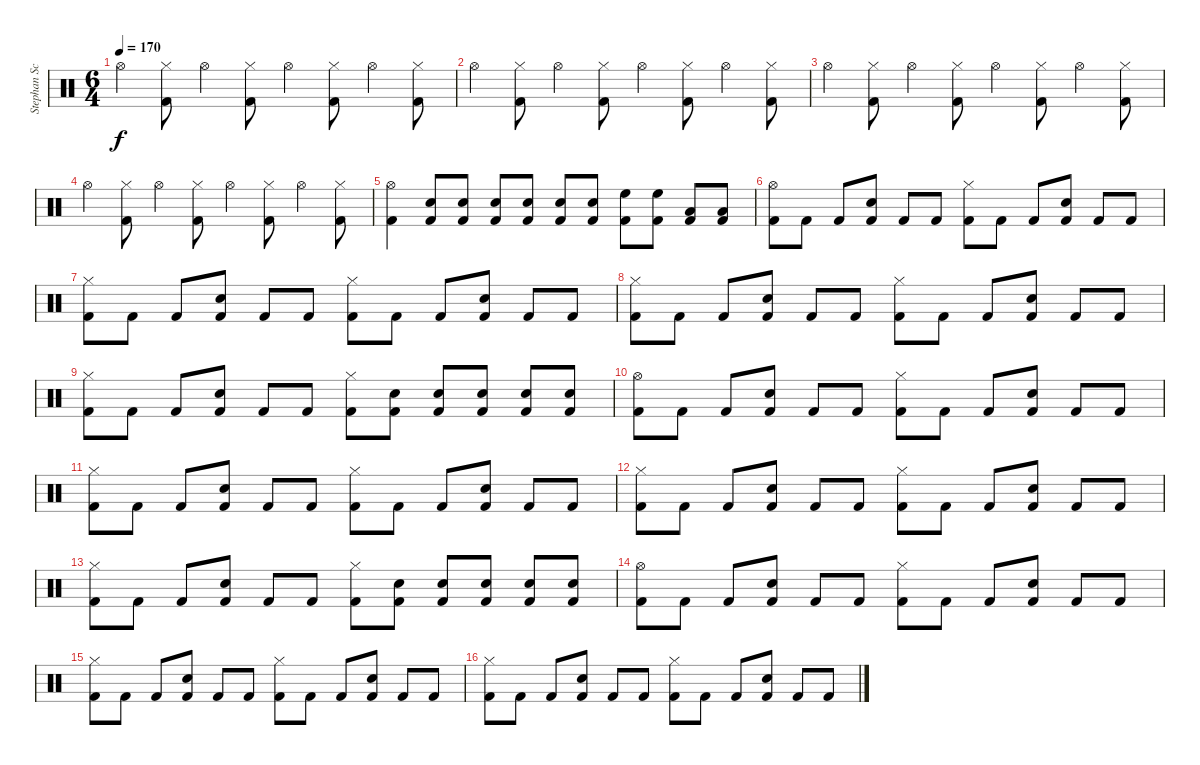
\track ("Stephan Schwartzmann" "Stephan Sc") {instrument percussion}
\staff {score}
\articulation defaults
\ts (6 4)
\tempo 170
\clef neutral
\ks c "Hi-Hat (open)".4{dy f}
("Hi-Hat (closed)" "Kick (hit) 2").8 "Hi-Hat (open)".4 ("Hi-Hat (closed)" "Kick (hit) 2").8 "Hi-Hat (open)".4 ("Hi-Hat (closed)" "Kick (hit) 2").8 "Hi-Hat (open)".4 ("Hi-Hat (closed)" "Kick (hit) 2").8 |
"Hi-Hat (open)".4 ("Hi-Hat (closed)" "Kick (hit) 2").8 "Hi-Hat (open)".4 ("Hi-Hat (closed)" "Kick (hit) 2").8 "Hi-Hat (open)".4 ("Hi-Hat (closed)" "Kick (hit) 2").8 "Hi-Hat (open)".4 ("Hi-Hat (closed)" "Kick (hit) 2").8 |
"Hi-Hat (open)".4 ("Hi-Hat (closed)" "Kick (hit) 2").8 "Hi-Hat (open)".4 ("Hi-Hat (closed)" "Kick (hit) 2").8 "Hi-Hat (open)".4 ("Hi-Hat (closed)" "Kick (hit) 2").8 "Hi-Hat (open)".4 ("Hi-Hat (closed)" "Kick (hit) 2").8 |
"Hi-Hat (open)".4 ("Hi-Hat (closed)" "Kick (hit) 2").8 "Hi-Hat (open)".4 ("Hi-Hat (closed)" "Kick (hit) 2").8 "Hi-Hat (open)".4 ("Hi-Hat (closed)" "Kick (hit) 2").8 "Hi-Hat (open)".4 ("Hi-Hat (closed)" "Kick (hit) 2").8 |
("Hi-Hat (open)" "Kick (hit) 2").4 ("Snare (hit) 2" "Kick (hit) 2").8 ("Snare (hit) 2" "Kick (hit) 2").8 ("Snare (hit) 2" "Kick (hit) 2").8 ("Snare (hit) 2" "Kick (hit) 2").8 ("Snare (hit) 2" "Kick (hit) 2").8 ("Snare (hit) 2" "Kick (hit) 2").8 ("High Floor Tom (hit)" "Kick (hit) 2").8 ("High Floor Tom (hit)" "Kick (hit) 2").8 ("Low Tom (hit)" "Kick (hit) 2").8 ("Low Tom (hit)" "Kick (hit) 2").8 |
("Hi-Hat (open)" "Kick (hit) 2").8 "Kick (hit) 2".8 "Kick (hit) 2".8 ("Snare (hit) 2" "Kick (hit) 2").8 "Kick (hit) 2".8 "Kick (hit) 2".8 ("Hi-Hat (closed)" "Kick (hit) 2").8 "Kick (hit) 2".8 "Kick (hit) 2".8 ("Snare (hit) 2" "Kick (hit) 2").8 "Kick (hit) 2".8 "Kick (hit) 2".8 |
("Hi-Hat (closed)" "Kick (hit) 2").8 "Kick (hit) 2".8 "Kick (hit) 2".8 ("Snare (hit) 2" "Kick (hit) 2").8 "Kick (hit) 2".8 "Kick (hit) 2".8 ("Hi-Hat (closed)" "Kick (hit) 2").8 "Kick (hit) 2".8 "Kick (hit) 2".8 ("Snare (hit) 2" "Kick (hit) 2").8 "Kick (hit) 2".8 "Kick (hit) 2".8 |
("Hi-Hat (closed)" "Kick (hit) 2").8 "Kick (hit) 2".8 "Kick (hit) 2".8 ("Snare (hit) 2" "Kick (hit) 2").8 "Kick (hit) 2".8 "Kick (hit) 2".8 ("Hi-Hat (closed)" "Kick (hit) 2").8 "Kick (hit) 2".8 "Kick (hit) 2".8 ("Snare (hit) 2" "Kick (hit) 2").8 "Kick (hit) 2".8 "Kick (hit) 2".8 |
("Hi-Hat (closed)" "Kick (hit) 2").8 "Kick (hit) 2".8 "Kick (hit) 2".8 ("Snare (hit) 2" "Kick (hit) 2").8 "Kick (hit) 2".8 "Kick (hit) 2".8 ("Hi-Hat (closed)" "Kick (hit) 2").8 ("Snare (hit) 2" "Kick (hit) 2").8 ("Snare (hit) 2" "Kick (hit) 2").8 ("Snare (hit) 2" "Kick (hit) 2").8 ("Snare (hit) 2" "Kick (hit) 2").8 ("Snare (hit) 2" "Kick (hit) 2").8 |
("Hi-Hat (open)" "Kick (hit) 2").8 "Kick (hit) 2".8 "Kick (hit) 2".8 ("Snare (hit) 2" "Kick (hit) 2").8 "Kick (hit) 2".8 "Kick (hit) 2".8 ("Hi-Hat (closed)" "Kick (hit) 2").8 "Kick (hit) 2".8 "Kick (hit) 2".8 ("Snare (hit) 2" "Kick (hit) 2").8 "Kick (hit) 2".8 "Kick (hit) 2".8 |
("Hi-Hat (closed)" "Kick (hit) 2").8 "Kick (hit) 2".8 "Kick (hit) 2".8 ("Snare (hit) 2" "Kick (hit) 2").8 "Kick (hit) 2".8 "Kick (hit) 2".8 ("Hi-Hat (closed)" "Kick (hit) 2").8 "Kick (hit) 2".8 "Kick (hit) 2".8 ("Snare (hit) 2" "Kick (hit) 2").8 "Kick (hit) 2".8 "Kick (hit) 2".8 |
("Hi-Hat (closed)" "Kick (hit) 2").8 "Kick (hit) 2".8 "Kick (hit) 2".8 ("Snare (hit) 2" "Kick (hit) 2").8 "Kick (hit) 2".8 "Kick (hit) 2".8 ("Hi-Hat (closed)" "Kick (hit) 2").8 "Kick (hit) 2".8 "Kick (hit) 2".8 ("Snare (hit) 2" "Kick (hit) 2").8 "Kick (hit) 2".8 "Kick (hit) 2".8 |
("Hi-Hat (closed)" "Kick (hit) 2").8 "Kick (hit) 2".8 "Kick (hit) 2".8 ("Snare (hit) 2" "Kick (hit) 2").8 "Kick (hit) 2".8 "Kick (hit) 2".8 ("Hi-Hat (closed)" "Kick (hit) 2").8 ("Snare (hit) 2" "Kick (hit) 2").8 ("Snare (hit) 2" "Kick (hit) 2").8 ("Snare (hit) 2" "Kick (hit) 2").8 ("Snare (hit) 2" "Kick (hit) 2").8 ("Snare (hit) 2" "Kick (hit) 2").8 |
("Hi-Hat (open)" "Kick (hit) 2").8 "Kick (hit) 2".8 "Kick (hit) 2".8 ("Snare (hit) 2" "Kick (hit) 2").8 "Kick (hit) 2".8 "Kick (hit) 2".8 ("Hi-Hat (closed)" "Kick (hit) 2").8 "Kick (hit) 2".8 "Kick (hit) 2".8 ("Snare (hit) 2" "Kick (hit) 2").8 "Kick (hit) 2".8 "Kick (hit) 2".8 |
("Hi-Hat (closed)" "Kick (hit) 2").8 "Kick (hit) 2".8 "Kick (hit) 2".8 ("Snare (hit) 2" "Kick (hit) 2").8 "Kick (hit) 2".8 "Kick (hit) 2".8 ("Hi-Hat (closed)" "Kick (hit) 2").8 "Kick (hit) 2".8 "Kick (hit) 2".8 ("Snare (hit) 2" "Kick (hit) 2").8 "Kick (hit) 2".8 "Kick (hit) 2".8 |
("Hi-Hat (closed)" "Kick (hit) 2").8 "Kick (hit) 2".8 "Kick (hit) 2".8 ("Snare (hit) 2" "Kick (hit) 2").8 "Kick (hit) 2".8 "Kick (hit) 2".8 ("Hi-Hat (closed)" "Kick (hit) 2").8 "Kick (hit) 2".8 "Kick (hit) 2".8 ("Snare (hit) 2" "Kick (hit) 2").8 "Kick (hit) 2".8 "Kick (hit) 2".8
